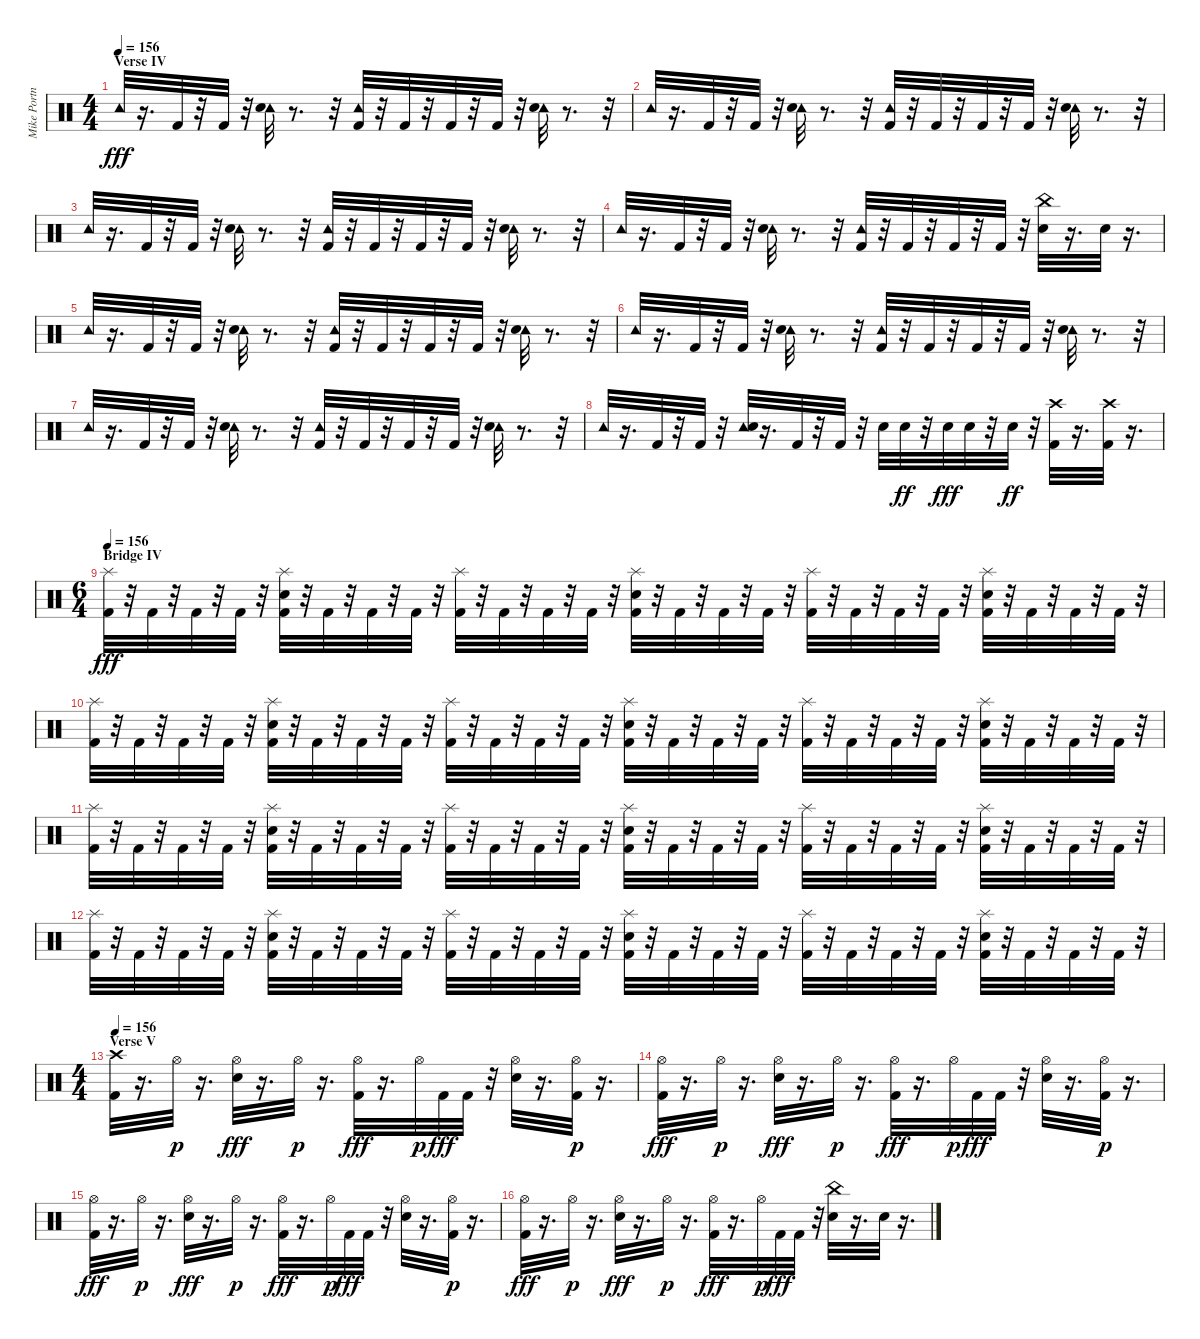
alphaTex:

\track ("Mike Portnoy" "Mike Portn") {instrument percussion}
\staff {score}
\articulation defaults
\ts (4 4)
\section ("" "Verse IV")
\tempo 156
\clef neutral
\ks c "Tambourine (hit)".32{dy fff}
r.16{d} "Kick (hit) 2".32 r.32 "Kick (hit) 2".32 r.32 ("Tambourine (hit)" "Snare (hit) 2").32 r.8{d} r.32 ("Tambourine (hit)" "Kick (hit) 2").32 r.32 "Kick (hit) 2".32 r.32 "Kick (hit) 2".32 r.32 "Kick (hit) 2".32 r.32 ("Tambourine (hit)" "Snare (hit) 2").32 r.8{d} r.32 |
"Tambourine (hit)".32 r.16{d} "Kick (hit) 2".32 r.32 "Kick (hit) 2".32 r.32 ("Tambourine (hit)" "Snare (hit) 2").32 r.8{d} r.32 ("Tambourine (hit)" "Kick (hit) 2").32 r.32 "Kick (hit) 2".32 r.32 "Kick (hit) 2".32 r.32 "Kick (hit) 2".32 r.32 ("Tambourine (hit)" "Snare (hit) 2").32 r.8{d} r.32 |
"Tambourine (hit)".32 r.16{d} "Kick (hit) 2".32 r.32 "Kick (hit) 2".32 r.32 ("Tambourine (hit)" "Snare (hit) 2").32 r.8{d} r.32 ("Tambourine (hit)" "Kick (hit) 2").32 r.32 "Kick (hit) 2".32 r.32 "Kick (hit) 2".32 r.32 "Kick (hit) 2".32 r.32 ("Tambourine (hit)" "Snare (hit) 2").32 r.8{d} r.32 |
"Tambourine (hit)".32 r.16{d} "Kick (hit) 2".32 r.32 "Kick (hit) 2".32 r.32 ("Tambourine (hit)" "Snare (hit) 2").32 r.8{d} r.32 ("Tambourine (hit)" "Kick (hit) 2").32 r.32 "Kick (hit) 2".32 r.32 "Kick (hit) 2".32 r.32 "Kick (hit) 2".32 r.32 ("Snare (hit) 2" "China (hit)").32 r.16{d} "Snare (hit) 2".32 r.16{d} |
"Tambourine (hit)".32 r.16{d} "Kick (hit) 2".32 r.32 "Kick (hit) 2".32 r.32 ("Tambourine (hit)" "Snare (hit) 2").32 r.8{d} r.32 ("Tambourine (hit)" "Kick (hit) 2").32 r.32 "Kick (hit) 2".32 r.32 "Kick (hit) 2".32 r.32 "Kick (hit) 2".32 r.32 ("Tambourine (hit)" "Snare (hit) 2").32 r.8{d} r.32 |
"Tambourine (hit)".32 r.16{d} "Kick (hit) 2".32 r.32 "Kick (hit) 2".32 r.32 ("Tambourine (hit)" "Snare (hit) 2").32 r.8{d} r.32 ("Tambourine (hit)" "Kick (hit) 2").32 r.32 "Kick (hit) 2".32 r.32 "Kick (hit) 2".32 r.32 "Kick (hit) 2".32 r.32 ("Tambourine (hit)" "Snare (hit) 2").32 r.8{d} r.32 |
"Tambourine (hit)".32 r.16{d} "Kick (hit) 2".32 r.32 "Kick (hit) 2".32 r.32 ("Tambourine (hit)" "Snare (hit) 2").32 r.8{d} r.32 ("Tambourine (hit)" "Kick (hit) 2").32 r.32 "Kick (hit) 2".32 r.32 "Kick (hit) 2".32 r.32 "Kick (hit) 2".32 r.32 ("Tambourine (hit)" "Snare (hit) 2").32 r.8{d} r.32 |
"Tambourine (hit)".32 r.16{d} "Kick (hit) 2".32 r.32 "Kick (hit) 2".32 r.32 ("Tambourine (hit)" "Snare (hit) 2").32 r.16{d} "Kick (hit) 2".32 r.32 "Kick (hit) 2".32 r.32 "Snare (hit) 2".32 "Snare (hit) 2".32{dy ff} r.32 "Snare (hit) 2".32{dy fff} "Snare (hit) 2".32 r.32 "Snare (hit) 2".32{dy ff} r.32 ("Kick (hit) 2" "Crash high (hit)").32 r.16{d} ("Kick (hit) 2" "Crash high (hit)").32 r.16{d} |
\ts (6 4)
\section ("" "Bridge IV")
\tempo 156
("Kick (hit) 2" "Splash (hit)").32{dy fff} r.32 "Kick (hit) 2".32 r.32 "Kick (hit) 2".32 r.32 "Kick (hit) 2".32 r.32 ("Kick (hit) 2" "Splash (hit)" "Snare (hit) 2").32 r.32 "Kick (hit) 2".32 r.32 "Kick (hit) 2".32 r.32 "Kick (hit) 2".32 r.32 ("Kick (hit) 2" "Splash (hit)").32 r.32 "Kick (hit) 2".32 r.32 "Kick (hit) 2".32 r.32 "Kick (hit) 2".32 r.32 ("Kick (hit) 2" "Splash (hit)" "Snare (hit) 2").32 r.32 "Kick (hit) 2".32 r.32 "Kick (hit) 2".32 r.32 "Kick (hit) 2".32 r.32 ("Kick (hit) 2" "Splash (hit)").32 r.32 "Kick (hit) 2".32 r.32 "Kick (hit) 2".32 r.32 "Kick (hit) 2".32 r.32 ("Kick (hit) 2" "Splash (hit)" "Snare (hit) 2").32 r.32 "Kick (hit) 2".32 r.32 "Kick (hit) 2".32 r.32 "Kick (hit) 2".32 r.32 |
("Kick (hit) 2" "Splash (hit)").32 r.32 "Kick (hit) 2".32 r.32 "Kick (hit) 2".32 r.32 "Kick (hit) 2".32 r.32 ("Kick (hit) 2" "Splash (hit)" "Snare (hit) 2").32 r.32 "Kick (hit) 2".32 r.32 "Kick (hit) 2".32 r.32 "Kick (hit) 2".32 r.32 ("Kick (hit) 2" "Splash (hit)").32 r.32 "Kick (hit) 2".32 r.32 "Kick (hit) 2".32 r.32 "Kick (hit) 2".32 r.32 ("Kick (hit) 2" "Splash (hit)" "Snare (hit) 2").32 r.32 "Kick (hit) 2".32 r.32 "Kick (hit) 2".32 r.32 "Kick (hit) 2".32 r.32 ("Kick (hit) 2" "Splash (hit)").32 r.32 "Kick (hit) 2".32 r.32 "Kick (hit) 2".32 r.32 "Kick (hit) 2".32 r.32 ("Kick (hit) 2" "Splash (hit)" "Snare (hit) 2").32 r.32 "Kick (hit) 2".32 r.32 "Kick (hit) 2".32 r.32 "Kick (hit) 2".32 r.32 |
("Kick (hit) 2" "Splash (hit)").32 r.32 "Kick (hit) 2".32 r.32 "Kick (hit) 2".32 r.32 "Kick (hit) 2".32 r.32 ("Kick (hit) 2" "Splash (hit)" "Snare (hit) 2").32 r.32 "Kick (hit) 2".32 r.32 "Kick (hit) 2".32 r.32 "Kick (hit) 2".32 r.32 ("Kick (hit) 2" "Splash (hit)").32 r.32 "Kick (hit) 2".32 r.32 "Kick (hit) 2".32 r.32 "Kick (hit) 2".32 r.32 ("Kick (hit) 2" "Splash (hit)" "Snare (hit) 2").32 r.32 "Kick (hit) 2".32 r.32 "Kick (hit) 2".32 r.32 "Kick (hit) 2".32 r.32 ("Kick (hit) 2" "Splash (hit)").32 r.32 "Kick (hit) 2".32 r.32 "Kick (hit) 2".32 r.32 "Kick (hit) 2".32 r.32 ("Kick (hit) 2" "Splash (hit)" "Snare (hit) 2").32 r.32 "Kick (hit) 2".32 r.32 "Kick (hit) 2".32 r.32 "Kick (hit) 2".32 r.32 |
("Kick (hit) 2" "Splash (hit)").32 r.32 "Kick (hit) 2".32 r.32 "Kick (hit) 2".32 r.32 "Kick (hit) 2".32 r.32 ("Kick (hit) 2" "Splash (hit)" "Snare (hit) 2").32 r.32 "Kick (hit) 2".32 r.32 "Kick (hit) 2".32 r.32 "Kick (hit) 2".32 r.32 ("Kick (hit) 2" "Splash (hit)").32 r.32 "Kick (hit) 2".32 r.32 "Kick (hit) 2".32 r.32 "Kick (hit) 2".32 r.32 ("Kick (hit) 2" "Splash (hit)" "Snare (hit) 2").32 r.32 "Kick (hit) 2".32 r.32 "Kick (hit) 2".32 r.32 "Kick (hit) 2".32 r.32 ("Kick (hit) 2" "Splash (hit)").32 r.32 "Kick (hit) 2".32 r.32 "Kick (hit) 2".32 r.32 "Kick (hit) 2".32 r.32 ("Kick (hit) 2" "Splash (hit)" "Snare (hit) 2").32 r.32 "Kick (hit) 2".32 r.32 "Kick (hit) 2".32 r.32 "Kick (hit) 2".32 r.32 |
\ts (4 4)
\section ("" "Verse V")
\tempo 156
("Kick (hit) 2" "Crash high (hit)").32 r.16{d} "Hi-Hat (open)".32{dy p} r.16{d} ("Snare (hit) 2" "Hi-Hat (open)").32{dy fff} r.16{d} "Hi-Hat (open)".32{dy p} r.16{d} ("Kick (hit) 2" "Hi-Hat (open)").32{dy fff} r.16{d} "Hi-Hat (open)".32{dy p} "Kick (hit) 2".32{dy fff} "Kick (hit) 2".32 r.32 ("Snare (hit) 2" "Hi-Hat (open)").32 r.16{d} ("Kick (hit) 2" "Hi-Hat (open)").32{dy p} r.16{d} |
("Kick (hit) 2" "Hi-Hat (open)").32{dy fff} r.16{d} "Hi-Hat (open)".32{dy p} r.16{d} ("Snare (hit) 2" "Hi-Hat (open)").32{dy fff} r.16{d} "Hi-Hat (open)".32{dy p} r.16{d} ("Kick (hit) 2" "Hi-Hat (open)").32{dy fff} r.16{d} "Hi-Hat (open)".32{dy p} "Kick (hit) 2".32{dy fff} "Kick (hit) 2".32 r.32 ("Snare (hit) 2" "Hi-Hat (open)").32 r.16{d} ("Kick (hit) 2" "Hi-Hat (open)").32{dy p} r.16{d} |
("Kick (hit) 2" "Hi-Hat (open)").32{dy fff} r.16{d} "Hi-Hat (open)".32{dy p} r.16{d} ("Snare (hit) 2" "Hi-Hat (open)").32{dy fff} r.16{d} "Hi-Hat (open)".32{dy p} r.16{d} ("Kick (hit) 2" "Hi-Hat (open)").32{dy fff} r.16{d} "Hi-Hat (open)".32{dy p} "Kick (hit) 2".32{dy fff} "Kick (hit) 2".32 r.32 ("Snare (hit) 2" "Hi-Hat (open)").32 r.16{d} ("Kick (hit) 2" "Hi-Hat (open)").32{dy p} r.16{d} |
("Kick (hit) 2" "Hi-Hat (open)").32{dy fff} r.16{d} "Hi-Hat (open)".32{dy p} r.16{d} ("Snare (hit) 2" "Hi-Hat (open)").32{dy fff} r.16{d} "Hi-Hat (open)".32{dy p} r.16{d} ("Kick (hit) 2" "Hi-Hat (open)").32{dy fff} r.16{d} "Hi-Hat (open)".32{dy p} "Kick (hit) 2".32{dy fff} "Kick (hit) 2".32 r.32 ("Snare (hit) 2" "China (hit)").32 r.16{d} "Snare (hit) 2".32 r.16{d}
